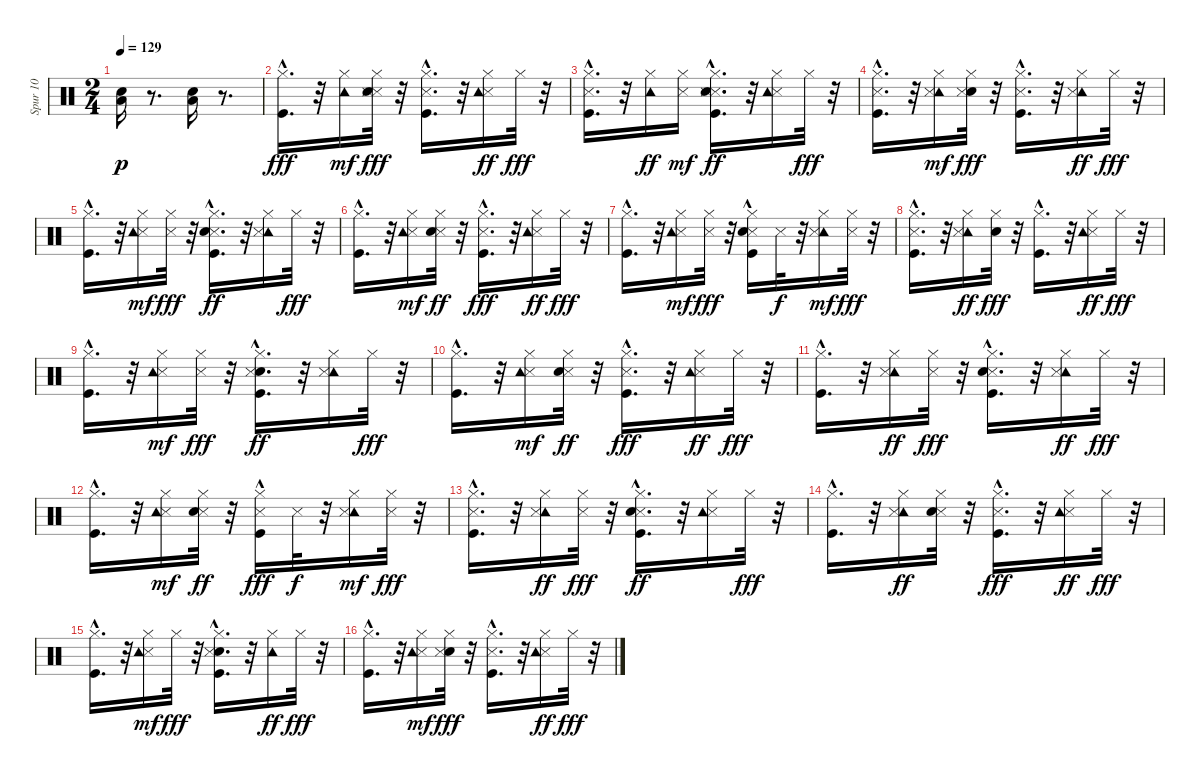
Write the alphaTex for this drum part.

\track ("Spur 10" "Spur 10") {instrument percussion}
\staff {score}
\articulation defaults
\ts (2 4)
\tempo 129
\clef neutral
\ks c
("Snare (hit) 2" "Low Tom (hit)").16{dy p} r.8{d} ("Snare (hit) 2" "Low Tom (hit)").16 r.8{d} |
("Hi-Hat (closed)" "Kick (hit)"{hac}).16{d dy fff} r.32 ("Hi-Hat (closed)" "Tambourine (hit)").16{dy mf} ("Snare (side stick) 3" "Snare (side stick) 3" "Snare (hit) 2" "Hi-Hat (closed)").32{dy fff} r.32 ("Hi-Hat (closed)" "Snare (side stick) 3" "Kick (hit)"{hac}).16{d} r.32 ("Snare (side stick) 3" "Hi-Hat (closed)" "Tambourine (hit)").16{dy ff} "Hi-Hat (closed)".32{dy fff} r.32 |
("Snare (side stick) 3" "Hi-Hat (closed)" "Kick (hit)"{hac}).16{d} r.32 ("Tambourine (hit)" "Hi-Hat (closed)").16{dy ff} ("Hi-Hat (closed)" "Snare (side stick) 3").16{dy mf} ("Kick (hit)"{hac} "Hi-Hat (closed)" "Snare (side stick) 3" "Snare (hit) 2" "Snare (side stick) 3").16{d dy ff} r.32 ("Snare (side stick) 3" "Hi-Hat (closed)" "Tambourine (hit)").16 "Hi-Hat (closed)".32{dy fff} r.32 |
("Hi-Hat (closed)" "Snare (side stick) 3" "Kick (hit)"{hac}).16{d} r.32 ("Hi-Hat (closed)" "Tambourine (hit)" "Snare (side stick) 3").16{dy mf} ("Snare (hit) 2" "Snare (side stick) 3" "Hi-Hat (closed)").32{dy fff} r.32 ("Kick (hit)"{hac} "Hi-Hat (closed)" "Snare (side stick) 3").16{d} r.32 ("Tambourine (hit)" "Snare (side stick) 3" "Hi-Hat (closed)").16{dy ff} "Hi-Hat (closed)".32{dy fff} r.32 |
("Hi-Hat (closed)" "Kick (hit)"{hac}).16{d} r.32 ("Snare (side stick) 3" "Hi-Hat (closed)" "Tambourine (hit)").16{dy mf} ("Snare (side stick) 3" "Hi-Hat (closed)").32{dy fff} r.32 ("Hi-Hat (closed)" "Snare (side stick) 3" "Kick (hit)"{hac} "Snare (hit) 2").16{d dy ff} r.32 ("Tambourine (hit)" "Hi-Hat (closed)" "Snare (side stick) 3").16 "Hi-Hat (closed)".32{dy fff} r.32 |
("Hi-Hat (closed)" "Kick (hit)"{hac}).16{d} r.32 ("Hi-Hat (closed)" "Snare (side stick) 3" "Tambourine (hit)").16{dy mf} ("Snare (side stick) 3" "Hi-Hat (closed)" "Snare (hit) 2").32{dy ff} r.32 ("Snare (side stick) 3" "Hi-Hat (closed)" "Kick (hit)"{hac}).16{d dy fff} r.32 ("Snare (side stick) 3" "Hi-Hat (closed)" "Tambourine (hit)").16{dy ff} "Hi-Hat (closed)".32{dy fff} r.32 |
("Hi-Hat (closed)" "Kick (hit)"{hac}).16{d} r.32 ("Snare (side stick) 3" "Hi-Hat (closed)" "Tambourine (hit)").16{dy mf} ("Snare (side stick) 3" "Hi-Hat (closed)").32{dy fff} r.32 ("Snare (side stick) 3" "Snare (hit) 2" "Hi-Hat (closed)" "Kick (hit)"{hac}).16 "Snare (side stick) 3".32{dy f} r.32 ("Tambourine (hit)" "Hi-Hat (closed)" "Snare (side stick) 3").16{dy mf} ("Snare (side stick) 3" "Hi-Hat (closed)").32{dy fff} r.32 |
("Hi-Hat (closed)" "Kick (hit)"{hac} "Snare (side stick) 3").16{d} r.32 ("Tambourine (hit)" "Snare (side stick) 3" "Hi-Hat (closed)").16{dy ff} ("Snare (hit) 2" "Hi-Hat (closed)").32{dy fff} r.32 ("Hi-Hat (closed)" "Kick (hit)"{hac}).16{d} r.32 ("Snare (side stick) 3" "Hi-Hat (closed)" "Tambourine (hit)").16{dy ff} "Hi-Hat (closed)".32{dy fff} r.32 |
("Hi-Hat (closed)" "Kick (hit)"{hac}).16{d} r.32 ("Snare (side stick) 3" "Hi-Hat (closed)" "Tambourine (hit)").16{dy mf} ("Snare (side stick) 3" "Hi-Hat (closed)").32{dy fff} r.32 ("Kick (hit)"{hac} "Snare (hit) 2" "Snare (side stick) 3" "Hi-Hat (closed)").16{d dy ff} r.32 ("Hi-Hat (closed)" "Tambourine (hit)" "Snare (side stick) 3").16 "Hi-Hat (closed)".32{dy fff} r.32 |
("Hi-Hat (closed)" "Kick (hit)"{hac}).16{d} r.32 ("Snare (side stick) 3" "Hi-Hat (closed)" "Tambourine (hit)").16{dy mf} ("Hi-Hat (closed)" "Snare (side stick) 3" "Snare (hit) 2").32{dy ff} r.32 ("Snare (side stick) 3" "Kick (hit)"{hac} "Hi-Hat (closed)").16{d dy fff} r.32 ("Snare (side stick) 3" "Hi-Hat (closed)" "Tambourine (hit)").16{dy ff} "Hi-Hat (closed)".32{dy fff} r.32 |
("Kick (hit)"{hac} "Hi-Hat (closed)").16{d} r.32 ("Tambourine (hit)" "Hi-Hat (closed)" "Snare (side stick) 3").16{dy ff} ("Snare (side stick) 3" "Hi-Hat (closed)").32{dy fff} r.32 ("Snare (side stick) 3" "Snare (hit) 2" "Hi-Hat (closed)" "Kick (hit)"{hac}).16{d} r.32 ("Tambourine (hit)" "Hi-Hat (closed)" "Snare (side stick) 3").16{dy ff} "Hi-Hat (closed)".32{dy fff} r.32 |
("Hi-Hat (closed)" "Kick (hit)"{hac}).16{d} r.32 ("Hi-Hat (closed)" "Snare (side stick) 3" "Tambourine (hit)").16{dy mf} ("Snare (side stick) 3" "Hi-Hat (closed)" "Snare (hit) 2").32{dy ff} r.32 ("Snare (side stick) 3" "Hi-Hat (closed)" "Kick (hit)"{hac}).16{dy fff} "Snare (side stick) 3".32{dy f} r.32 ("Hi-Hat (closed)" "Tambourine (hit)" "Snare (side stick) 3").16{dy mf} ("Snare (side stick) 3" "Hi-Hat (closed)").32{dy fff} r.32 |
("Kick (hit)"{hac} "Snare (side stick) 3" "Hi-Hat (closed)").16{d} r.32 ("Tambourine (hit)" "Hi-Hat (closed)" "Snare (side stick) 3").16{dy ff} ("Hi-Hat (closed)" "Snare (side stick) 3").32{dy fff} r.32 ("Snare (side stick) 3" "Kick (hit)"{hac} "Hi-Hat (closed)" "Snare (hit) 2").16{d dy ff} r.32 ("Hi-Hat (closed)" "Snare (side stick) 3" "Tambourine (hit)").16 "Hi-Hat (closed)".32{dy fff} r.32 |
("Hi-Hat (closed)" "Kick (hit)"{hac}).16{d} r.32 ("Hi-Hat (closed)" "Tambourine (hit)" "Snare (side stick) 3").16{dy ff} ("Hi-Hat (closed)" "Snare (side stick) 3" "Snare (hit) 2").32 r.32 ("Snare (side stick) 3" "Hi-Hat (closed)" "Kick (hit)"{hac}).16{d dy fff} r.32 ("Snare (side stick) 3" "Tambourine (hit)" "Hi-Hat (closed)").16{dy ff} "Hi-Hat (closed)".32{dy fff} r.32 |
("Kick (hit)"{hac} "Hi-Hat (closed)").16{d} r.32 ("Hi-Hat (closed)" "Snare (side stick) 3" "Tambourine (hit)").16{dy mf} "Hi-Hat (closed)".32{dy fff} r.32 ("Hi-Hat (closed)" "Snare (hit) 2" "Snare (side stick) 3" "Kick (hit)"{hac}).16{d} r.32 ("Tambourine (hit)" "Hi-Hat (closed)").16{dy ff} "Hi-Hat (closed)".32{dy fff} r.32 |
("Hi-Hat (closed)" "Kick (hit)"{hac}).16{d} r.32 ("Hi-Hat (closed)" "Snare (side stick) 3" "Tambourine (hit)").16{dy mf} ("Snare (hit) 2" "Snare (side stick) 3" "Hi-Hat (closed)").32{dy fff} r.32 ("Hi-Hat (closed)" "Kick (hit)"{hac} "Snare (side stick) 3").16{d} r.32 ("Hi-Hat (closed)" "Snare (side stick) 3" "Tambourine (hit)").16{dy ff} "Hi-Hat (closed)".32{dy fff} r.32
